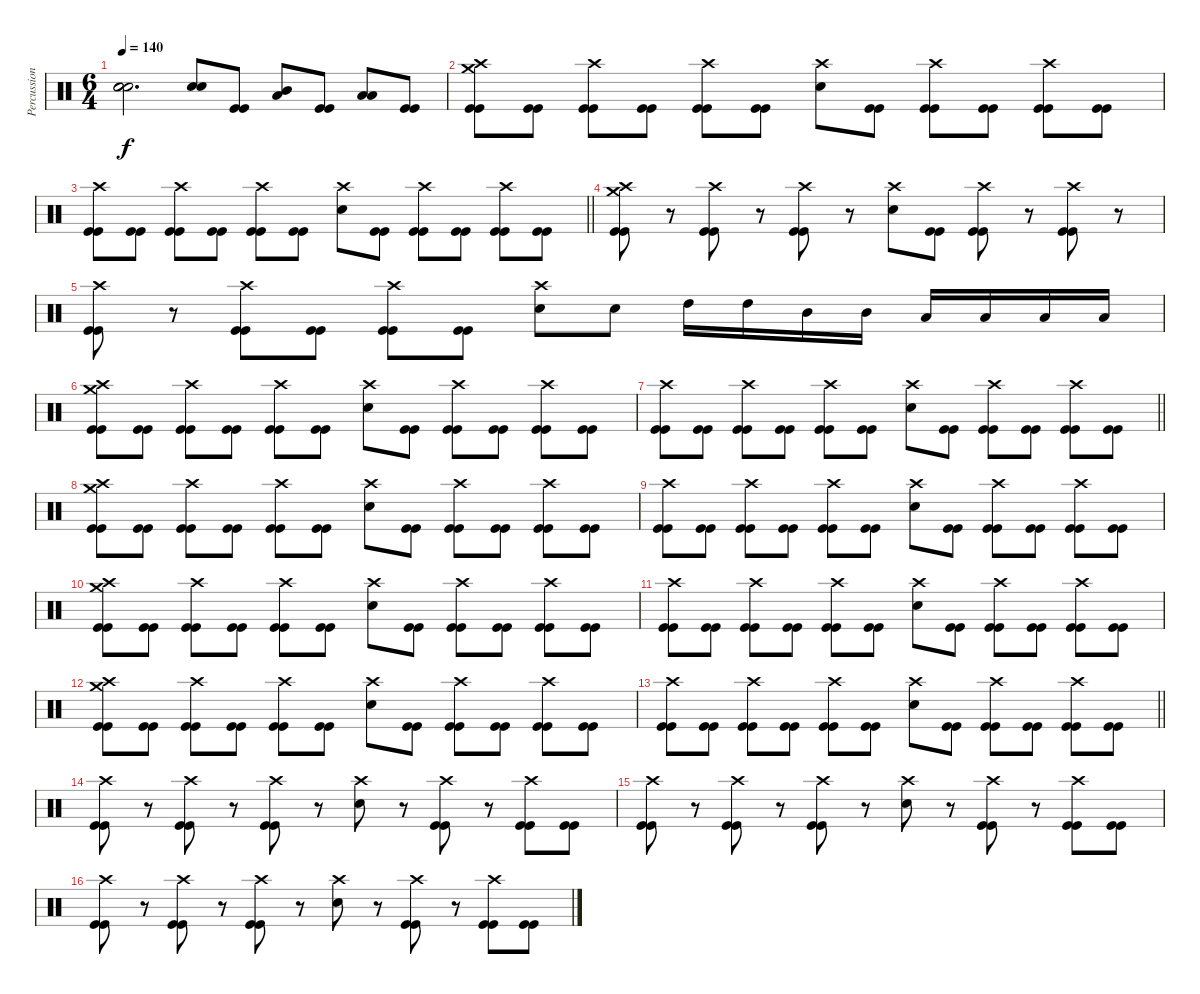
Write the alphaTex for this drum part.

\track ("Percussion" "Percussion") {instrument percussion}
\staff {score}
\articulation defaults
\ts (6 4)
\tempo 140
\clef neutral
\ks c
("Snare (hit)"{t} "Snare (hit)"{t} "Snare (hit)"{t}).2{d dy f} ("Snare (hit) 2" "Snare (hit) 2").8 ("Kick (hit)" "Kick (hit)").8 ("Mid Tom (hit)" "Low Tom (hit)").8 ("Kick (hit)" "Kick (hit)").8 ("Low Tom (hit)" "Low Floor Tom (hit)").8 ("Kick (hit)" "Kick (hit)").8 |
("Crash high (hit)" "Kick (hit)" "Kick (hit)" "Crash medium (hit)").8 ("Kick (hit)" "Kick (hit)").8 ("Crash high (hit)" "Kick (hit)" "Kick (hit)").8 ("Kick (hit)" "Kick (hit)").8 ("Crash high (hit)" "Kick (hit)" "Kick (hit)").8 ("Kick (hit)" "Kick (hit)").8 ("Crash high (hit)" "Snare (hit) 2").8 ("Kick (hit)" "Kick (hit)").8 ("Crash high (hit)" "Kick (hit)" "Kick (hit)").8 ("Kick (hit)" "Kick (hit)").8 ("Crash high (hit)" "Kick (hit)" "Kick (hit)").8 ("Kick (hit)" "Kick (hit)").8 |
\barLineRight lightlight
("Crash high (hit)" "Kick (hit)" "Kick (hit)").8 ("Kick (hit)" "Kick (hit)").8 ("Crash high (hit)" "Kick (hit)" "Kick (hit)").8 ("Kick (hit)" "Kick (hit)").8 ("Crash high (hit)" "Kick (hit)" "Kick (hit)").8 ("Kick (hit)" "Kick (hit)").8 ("Crash high (hit)" "Snare (hit) 2").8 ("Kick (hit)" "Kick (hit)").8 ("Crash high (hit)" "Kick (hit)" "Kick (hit)").8 ("Kick (hit)" "Kick (hit)").8 ("Crash high (hit)" "Kick (hit)" "Kick (hit)").8 ("Kick (hit)" "Kick (hit)").8 |
("Crash high (hit)" "Kick (hit)" "Kick (hit)" "Crash medium (hit)").8 r.8 ("Crash high (hit)" "Kick (hit)" "Kick (hit)").8 r.8 ("Crash high (hit)" "Kick (hit)" "Kick (hit)").8 r.8 ("Crash high (hit)" "Snare (hit) 2").8 ("Kick (hit)" "Kick (hit)").8 ("Crash high (hit)" "Kick (hit)" "Kick (hit)").8 r.8 ("Crash high (hit)" "Kick (hit)" "Kick (hit)").8 r.8 |
("Crash high (hit)" "Kick (hit)" "Kick (hit)").8 r.8 ("Crash high (hit)" "Kick (hit)" "Kick (hit)").8 ("Kick (hit)" "Kick (hit)").8 ("Crash high (hit)" "Kick (hit)" "Kick (hit)").8 ("Kick (hit)" "Kick (hit)").8 ("Crash high (hit)" "Snare (hit) 2").8 "Snare (hit) 2".8 "High Tom (hit)".16 "High Tom (hit)".16 "Mid Tom (hit)".16 "Mid Tom (hit)".16 "Low Tom (hit)".16 "Low Tom (hit)".16 "Low Floor Tom (hit)".16 "Low Floor Tom (hit)".16 |
("Crash high (hit)" "Kick (hit)" "Kick (hit)" "Crash medium (hit)").8 ("Kick (hit)" "Kick (hit)").8 ("Crash high (hit)" "Kick (hit)" "Kick (hit)").8 ("Kick (hit)" "Kick (hit)").8 ("Crash high (hit)" "Kick (hit)" "Kick (hit)").8 ("Kick (hit)" "Kick (hit)").8 ("Crash high (hit)" "Snare (hit) 2").8 ("Kick (hit)" "Kick (hit)").8 ("Crash high (hit)" "Kick (hit)" "Kick (hit)").8 ("Kick (hit)" "Kick (hit)").8 ("Crash high (hit)" "Kick (hit)" "Kick (hit)").8 ("Kick (hit)" "Kick (hit)").8 |
\barLineRight lightlight
("Crash high (hit)" "Kick (hit)" "Kick (hit)").8 ("Kick (hit)" "Kick (hit)").8 ("Crash high (hit)" "Kick (hit)" "Kick (hit)").8 ("Kick (hit)" "Kick (hit)").8 ("Crash high (hit)" "Kick (hit)" "Kick (hit)").8 ("Kick (hit)" "Kick (hit)").8 ("Crash high (hit)" "Snare (hit) 2").8 ("Kick (hit)" "Kick (hit)").8 ("Crash high (hit)" "Kick (hit)" "Kick (hit)").8 ("Kick (hit)" "Kick (hit)").8 ("Crash high (hit)" "Kick (hit)" "Kick (hit)").8 ("Kick (hit)" "Kick (hit)").8 |
("Crash high (hit)" "Kick (hit)" "Kick (hit)" "Crash medium (hit)").8 ("Kick (hit)" "Kick (hit)").8 ("Crash high (hit)" "Kick (hit)" "Kick (hit)").8 ("Kick (hit)" "Kick (hit)").8 ("Crash high (hit)" "Kick (hit)" "Kick (hit)").8 ("Kick (hit)" "Kick (hit)").8 ("Crash high (hit)" "Snare (hit) 2").8 ("Kick (hit)" "Kick (hit)").8 ("Crash high (hit)" "Kick (hit)" "Kick (hit)").8 ("Kick (hit)" "Kick (hit)").8 ("Crash high (hit)" "Kick (hit)" "Kick (hit)").8 ("Kick (hit)" "Kick (hit)").8 |
("Crash high (hit)" "Kick (hit)" "Kick (hit)").8 ("Kick (hit)" "Kick (hit)").8 ("Crash high (hit)" "Kick (hit)" "Kick (hit)").8 ("Kick (hit)" "Kick (hit)").8 ("Crash high (hit)" "Kick (hit)" "Kick (hit)").8 ("Kick (hit)" "Kick (hit)").8 ("Crash high (hit)" "Snare (hit) 2").8 ("Kick (hit)" "Kick (hit)").8 ("Crash high (hit)" "Kick (hit)" "Kick (hit)").8 ("Kick (hit)" "Kick (hit)").8 ("Crash high (hit)" "Kick (hit)" "Kick (hit)").8 ("Kick (hit)" "Kick (hit)").8 |
("Crash high (hit)" "Kick (hit)" "Kick (hit)" "Crash medium (hit)").8 ("Kick (hit)" "Kick (hit)").8 ("Crash high (hit)" "Kick (hit)" "Kick (hit)").8 ("Kick (hit)" "Kick (hit)").8 ("Crash high (hit)" "Kick (hit)" "Kick (hit)").8 ("Kick (hit)" "Kick (hit)").8 ("Crash high (hit)" "Snare (hit) 2").8 ("Kick (hit)" "Kick (hit)").8 ("Crash high (hit)" "Kick (hit)" "Kick (hit)").8 ("Kick (hit)" "Kick (hit)").8 ("Crash high (hit)" "Kick (hit)" "Kick (hit)").8 ("Kick (hit)" "Kick (hit)").8 |
("Crash high (hit)" "Kick (hit)" "Kick (hit)").8 ("Kick (hit)" "Kick (hit)").8 ("Crash high (hit)" "Kick (hit)" "Kick (hit)").8 ("Kick (hit)" "Kick (hit)").8 ("Crash high (hit)" "Kick (hit)" "Kick (hit)").8 ("Kick (hit)" "Kick (hit)").8 ("Crash high (hit)" "Snare (hit) 2").8 ("Kick (hit)" "Kick (hit)").8 ("Crash high (hit)" "Kick (hit)" "Kick (hit)").8 ("Kick (hit)" "Kick (hit)").8 ("Crash high (hit)" "Kick (hit)" "Kick (hit)").8 ("Kick (hit)" "Kick (hit)").8 |
("Crash high (hit)" "Kick (hit)" "Kick (hit)" "Crash medium (hit)").8 ("Kick (hit)" "Kick (hit)").8 ("Crash high (hit)" "Kick (hit)" "Kick (hit)").8 ("Kick (hit)" "Kick (hit)").8 ("Crash high (hit)" "Kick (hit)" "Kick (hit)").8 ("Kick (hit)" "Kick (hit)").8 ("Crash high (hit)" "Snare (hit) 2").8 ("Kick (hit)" "Kick (hit)").8 ("Crash high (hit)" "Kick (hit)" "Kick (hit)").8 ("Kick (hit)" "Kick (hit)").8 ("Crash high (hit)" "Kick (hit)" "Kick (hit)").8 ("Kick (hit)" "Kick (hit)").8 |
\barLineRight lightlight
("Crash high (hit)" "Kick (hit)" "Kick (hit)").8 ("Kick (hit)" "Kick (hit)").8 ("Crash high (hit)" "Kick (hit)" "Kick (hit)").8 ("Kick (hit)" "Kick (hit)").8 ("Crash high (hit)" "Kick (hit)" "Kick (hit)").8 ("Kick (hit)" "Kick (hit)").8 ("Crash high (hit)" "Snare (hit) 2").8 ("Kick (hit)" "Kick (hit)").8 ("Crash high (hit)" "Kick (hit)" "Kick (hit)").8 ("Kick (hit)" "Kick (hit)").8 ("Crash high (hit)" "Kick (hit)" "Kick (hit)").8 ("Kick (hit)" "Kick (hit)").8 |
("Crash high (hit)" "Kick (hit)" "Kick (hit)").8 r.8 ("Crash high (hit)" "Kick (hit)" "Kick (hit)").8 r.8 ("Crash high (hit)" "Kick (hit)" "Kick (hit)").8 r.8 ("Crash high (hit)" "Snare (hit) 2").8 r.8 ("Crash high (hit)" "Kick (hit)" "Kick (hit)").8 r.8 ("Crash high (hit)" "Kick (hit)" "Kick (hit)").8 ("Kick (hit)" "Kick (hit)").8 |
("Crash high (hit)" "Kick (hit)" "Kick (hit)").8 r.8 ("Crash high (hit)" "Kick (hit)" "Kick (hit)").8 r.8 ("Crash high (hit)" "Kick (hit)" "Kick (hit)").8 r.8 ("Crash high (hit)" "Snare (hit) 2").8 r.8 ("Crash high (hit)" "Kick (hit)" "Kick (hit)").8 r.8 ("Crash high (hit)" "Kick (hit)" "Kick (hit)").8 ("Kick (hit)" "Kick (hit)").8 |
("Crash high (hit)" "Kick (hit)" "Kick (hit)").8 r.8 ("Crash high (hit)" "Kick (hit)" "Kick (hit)").8 r.8 ("Crash high (hit)" "Kick (hit)" "Kick (hit)").8 r.8 ("Crash high (hit)" "Snare (hit) 2").8 r.8 ("Crash high (hit)" "Kick (hit)" "Kick (hit)").8 r.8 ("Crash high (hit)" "Kick (hit)" "Kick (hit)").8 ("Kick (hit)" "Kick (hit)").8
